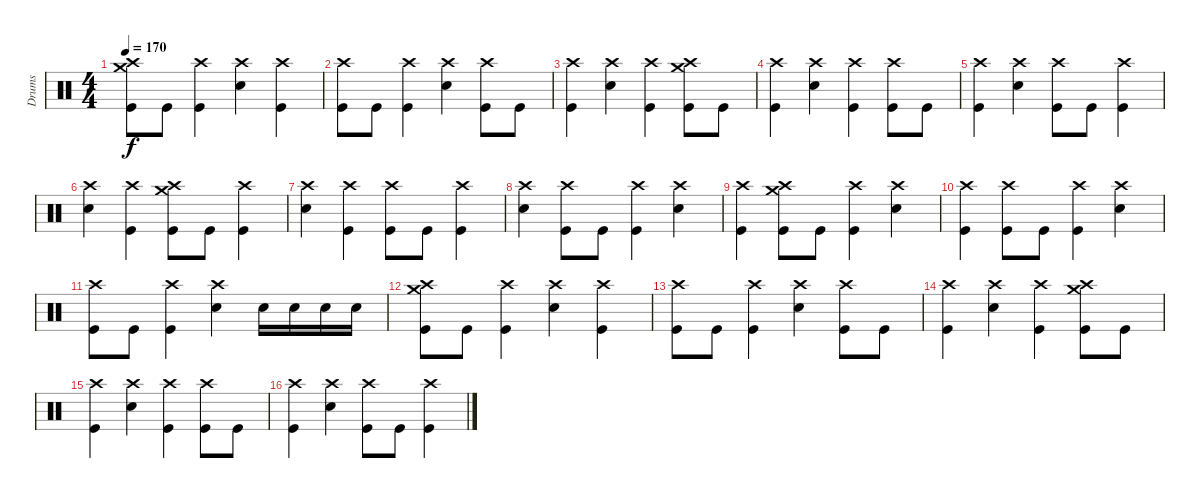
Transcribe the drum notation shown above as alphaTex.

\track ("Drums" "Drums") {instrument percussion}
\staff {score}
\articulation defaults
\ts (4 4)
\tempo 170
\clef neutral
\ks c
("Kick (hit)" "Crash high (hit)" "Crash medium (hit)").8{dy f volume 7} "Kick (hit)".8 ("Kick (hit)" "Crash high (hit)").4 ("Electric Snare (hit)" "Crash high (hit)").4 ("Kick (hit)" "Crash high (hit)").4 |
("Kick (hit)" "Crash high (hit)").8 "Kick (hit)".8 ("Kick (hit)" "Crash high (hit)").4 ("Electric Snare (hit)" "Crash high (hit)").4 ("Kick (hit)" "Crash high (hit)").8 "Kick (hit)".8 |
("Kick (hit)" "Crash high (hit)").4 ("Electric Snare (hit)" "Crash high (hit)").4 ("Kick (hit)" "Crash high (hit)").4 ("Kick (hit)" "Crash high (hit)" "Crash medium (hit)").8 "Kick (hit)".8 |
("Kick (hit)" "Crash high (hit)").4 ("Electric Snare (hit)" "Crash high (hit)").4 ("Kick (hit)" "Crash high (hit)").4 ("Kick (hit)" "Crash high (hit)").8 "Kick (hit)".8 |
("Kick (hit)" "Crash high (hit)").4 ("Electric Snare (hit)" "Crash high (hit)").4 ("Kick (hit)" "Crash high (hit)").8 "Kick (hit)".8 ("Kick (hit)" "Crash high (hit)").4 |
("Electric Snare (hit)" "Crash high (hit)").4 ("Kick (hit)" "Crash high (hit)").4 ("Kick (hit)" "Crash high (hit)" "Crash medium (hit)").8 "Kick (hit)".8 ("Kick (hit)" "Crash high (hit)").4 |
("Electric Snare (hit)" "Crash high (hit)").4 ("Kick (hit)" "Crash high (hit)").4 ("Kick (hit)" "Crash high (hit)").8 "Kick (hit)".8 ("Kick (hit)" "Crash high (hit)").4 |
("Electric Snare (hit)" "Crash high (hit)").4 ("Kick (hit)" "Crash high (hit)").8 "Kick (hit)".8 ("Kick (hit)" "Crash high (hit)").4 ("Electric Snare (hit)" "Crash high (hit)").4 |
("Kick (hit)" "Crash high (hit)").4 ("Kick (hit)" "Crash high (hit)" "Crash medium (hit)").8 "Kick (hit)".8 ("Kick (hit)" "Crash high (hit)").4 ("Electric Snare (hit)" "Crash high (hit)").4 |
("Kick (hit)" "Crash high (hit)").4 ("Kick (hit)" "Crash high (hit)").8 "Kick (hit)".8 ("Kick (hit)" "Crash high (hit)").4 ("Electric Snare (hit)" "Crash high (hit)").4 |
("Kick (hit)" "Crash high (hit)").8 "Kick (hit)".8 ("Kick (hit)" "Crash high (hit)").4 ("Electric Snare (hit)" "Crash high (hit)").4 "Electric Snare (hit)".16 "Electric Snare (hit)".16 "Electric Snare (hit)".16 "Electric Snare (hit)".16 |
("Kick (hit)" "Crash high (hit)" "Crash medium (hit)").8 "Kick (hit)".8 ("Kick (hit)" "Crash high (hit)").4 ("Electric Snare (hit)" "Crash high (hit)").4 ("Kick (hit)" "Crash high (hit)").4 |
("Kick (hit)" "Crash high (hit)").8 "Kick (hit)".8 ("Kick (hit)" "Crash high (hit)").4 ("Electric Snare (hit)" "Crash high (hit)").4 ("Kick (hit)" "Crash high (hit)").8 "Kick (hit)".8 |
("Kick (hit)" "Crash high (hit)").4 ("Electric Snare (hit)" "Crash high (hit)").4 ("Kick (hit)" "Crash high (hit)").4 ("Kick (hit)" "Crash high (hit)" "Crash medium (hit)").8 "Kick (hit)".8 |
("Kick (hit)" "Crash high (hit)").4 ("Electric Snare (hit)" "Crash high (hit)").4 ("Kick (hit)" "Crash high (hit)").4 ("Kick (hit)" "Crash high (hit)").8 "Kick (hit)".8 |
("Kick (hit)" "Crash high (hit)").4 ("Electric Snare (hit)" "Crash high (hit)").4 ("Kick (hit)" "Crash high (hit)").8 "Kick (hit)".8 ("Kick (hit)" "Crash high (hit)").4
